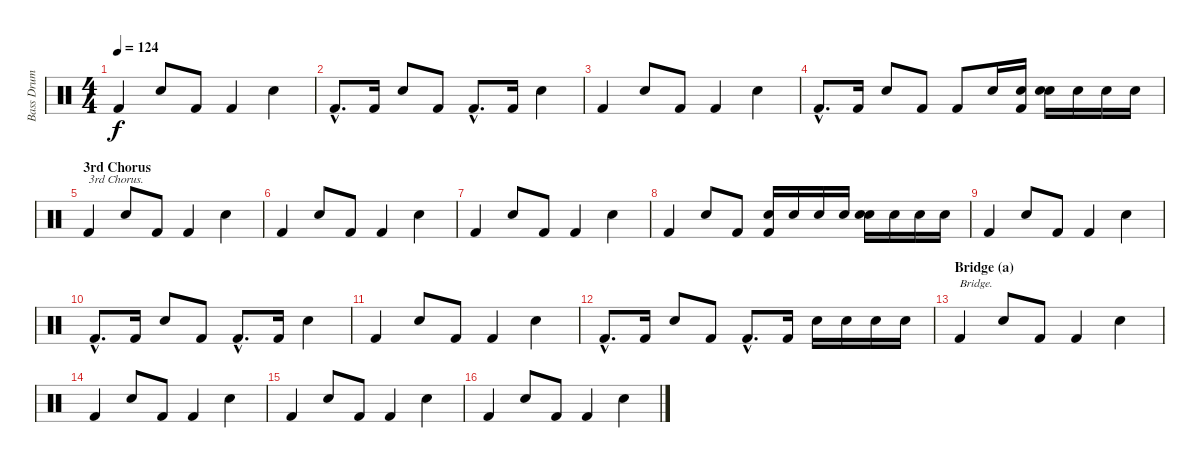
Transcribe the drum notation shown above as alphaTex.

\track ("Bass Drum and Snares" "Bass Drum ") {instrument percussion}
\staff {score}
\articulation defaults
\ts (4 4)
\tempo 124
\clef neutral
\ks c "Kick (hit) 2".4{dy f} "Snare (hit) 2".8 "Kick (hit) 2".8 "Kick (hit) 2".4 "Snare (hit) 2".4
|
"Kick (hit) 2"{hac}.8{d} "Kick (hit) 2".16 "Snare (hit) 2".8 "Kick (hit) 2".8 "Kick (hit) 2"{hac}.8{d} "Kick (hit) 2".16 "Snare (hit) 2".4 |
"Kick (hit) 2".4 "Snare (hit) 2".8 "Kick (hit) 2".8 "Kick (hit) 2".4 "Snare (hit) 2".4 |
"Kick (hit) 2"{hac}.8{d} "Kick (hit) 2".16 "Snare (hit) 2".8 "Kick (hit) 2".8 "Kick (hit) 2".8 "Electric Snare (hit)".16 ("Electric Snare (hit)" "Kick (hit) 2").16 ("Electric Snare (hit)" "Snare (hit) 2").16 "Electric Snare (hit)".16 "Electric Snare (hit)".16 "Electric Snare (hit)".16 |
\section ("" "3rd Chorus")
"Kick (hit) 2".4{txt "3rd Chorus."} "Snare (hit) 2".8 "Kick (hit) 2".8 "Kick (hit) 2".4 "Snare (hit) 2".4 |
"Kick (hit) 2".4 "Snare (hit) 2".8 "Kick (hit) 2".8 "Kick (hit) 2".4 "Snare (hit) 2".4 |
"Kick (hit) 2".4 "Snare (hit) 2".8 "Kick (hit) 2".8 "Kick (hit) 2".4 "Snare (hit) 2".4 |
"Kick (hit) 2".4 "Snare (hit) 2".8 "Kick (hit) 2".8 ("Electric Snare (hit)" "Kick (hit) 2").16 "Electric Snare (hit)".16 "Electric Snare (hit)".16 "Electric Snare (hit)".16 ("Electric Snare (hit)" "Snare (hit) 2").16 "Electric Snare (hit)".16 "Electric Snare (hit)".16 "Electric Snare (hit)".16 |
"Kick (hit) 2".4 "Snare (hit) 2".8 "Kick (hit) 2".8 "Kick (hit) 2".4 "Snare (hit) 2".4 |
"Kick (hit) 2"{hac}.8{d} "Kick (hit) 2".16 "Snare (hit) 2".8 "Kick (hit) 2".8 "Kick (hit) 2"{hac}.8{d} "Kick (hit) 2".16 "Snare (hit) 2".4 |
"Kick (hit) 2".4 "Snare (hit) 2".8 "Kick (hit) 2".8 "Kick (hit) 2".4 "Snare (hit) 2".4 |
"Kick (hit) 2"{hac}.8{d} "Kick (hit) 2".16 "Snare (hit) 2".8 "Kick (hit) 2".8 "Kick (hit) 2"{hac}.8{d} "Kick (hit) 2".16 "Electric Snare (hit)".16 "Electric Snare (hit)".16 "Electric Snare (hit)".16 "Electric Snare (hit)".16 |
\section ("" "Bridge (a)")
"Kick (hit) 2".4{txt "Bridge."} "Snare (hit) 2".8 "Kick (hit) 2".8 "Kick (hit) 2".4 "Snare (hit) 2".4 |
"Kick (hit) 2".4 "Snare (hit) 2".8 "Kick (hit) 2".8 "Kick (hit) 2".4 "Snare (hit) 2".4 |
"Kick (hit) 2".4 "Snare (hit) 2".8 "Kick (hit) 2".8 "Kick (hit) 2".4 "Snare (hit) 2".4 |
"Kick (hit) 2".4 "Snare (hit) 2".8 "Kick (hit) 2".8 "Kick (hit) 2".4 "Snare (hit) 2".4
